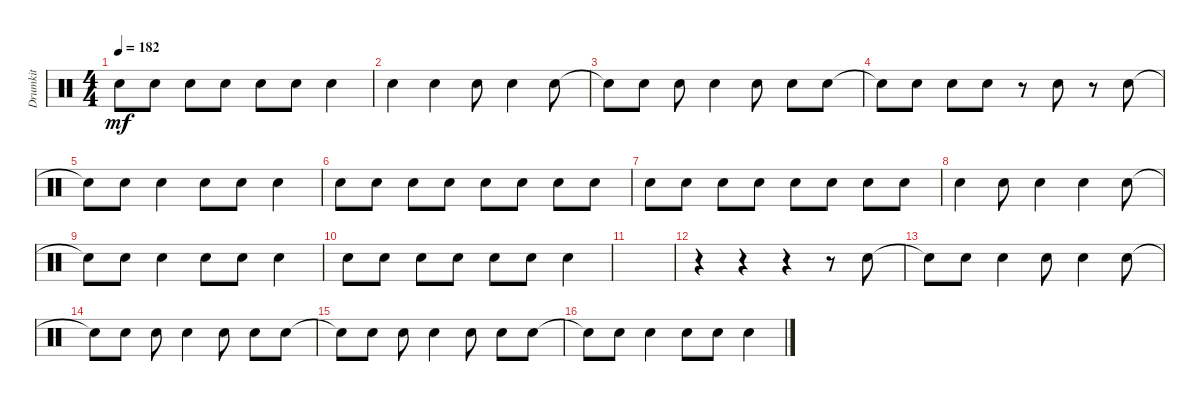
\track ("Drumkit" "Drumkit") {instrument percussion}
\staff {score}
\articulation defaults
\ts (4 4)
\tempo 182
\clef neutral
\ks c "Snare (hit)"{t}.8{dy mf} "Snare (hit)".8 "Snare (hit)".8 "Snare (hit)".8 "Snare (hit)".8 "Snare (hit)".8 "Snare (hit)".4
|
"Snare (hit)".4 "Snare (hit)".4 "Snare (hit)".8 "Snare (hit)".4 "Snare (hit)".8 |
"Snare (hit)"{t}.8 "Snare (hit)".8 "Snare (hit)".8 "Snare (hit)".4 "Snare (hit)".8 "Snare (hit)".8 "Snare (hit)".8 |
"Snare (hit)"{t}.8 "Snare (hit)".8 "Snare (hit)".8 "Snare (hit)".8 r.8 "Snare (hit)".8 r.8 "Snare (hit)".8 |
"Snare (hit)"{t}.8 "Snare (hit)".8 "Snare (hit)".4 "Snare (hit)".8 "Snare (hit)".8 "Snare (hit)".4 |
"Snare (hit)".8 "Snare (hit)".8 "Snare (hit)".8 "Snare (hit)".8 "Snare (hit)".8 "Snare (hit)".8 "Snare (hit)".8 "Snare (hit)".8 |
"Snare (hit)".8 "Snare (hit)".8 "Snare (hit)".8 "Snare (hit)".8 "Snare (hit)".8 "Snare (hit)".8 "Snare (hit)".8 "Snare (hit)".8 |
"Snare (hit)".4 "Snare (hit)".8 "Snare (hit)".4 "Snare (hit)".4 "Snare (hit)".8 |
"Snare (hit)"{t}.8 "Snare (hit)".8 "Snare (hit)".4 "Snare (hit)".8 "Snare (hit)".8 "Snare (hit)".4 |
"Snare (hit)".8 "Snare (hit)".8 "Snare (hit)".8 "Snare (hit)".8 "Snare (hit)".8 "Snare (hit)".8 "Snare (hit)".4 |
|
r.4 r.4 r.4 r.8 "Snare (hit)".8 |
"Snare (hit)"{t}.8 "Snare (hit)".8 "Snare (hit)".4 "Snare (hit)".8 "Snare (hit)".4 "Snare (hit)".8 |
"Snare (hit)"{t}.8 "Snare (hit)".8 "Snare (hit)".8 "Snare (hit)".4 "Snare (hit)".8 "Snare (hit)".8 "Snare (hit)".8 |
"Snare (hit)"{t}.8 "Snare (hit)".8 "Snare (hit)".8 "Snare (hit)".4 "Snare (hit)".8 "Snare (hit)".8 "Snare (hit)".8 |
"Snare (hit)"{t}.8 "Snare (hit)".8 "Snare (hit)".4 "Snare (hit)".8 "Snare (hit)".8 "Snare (hit)".4
